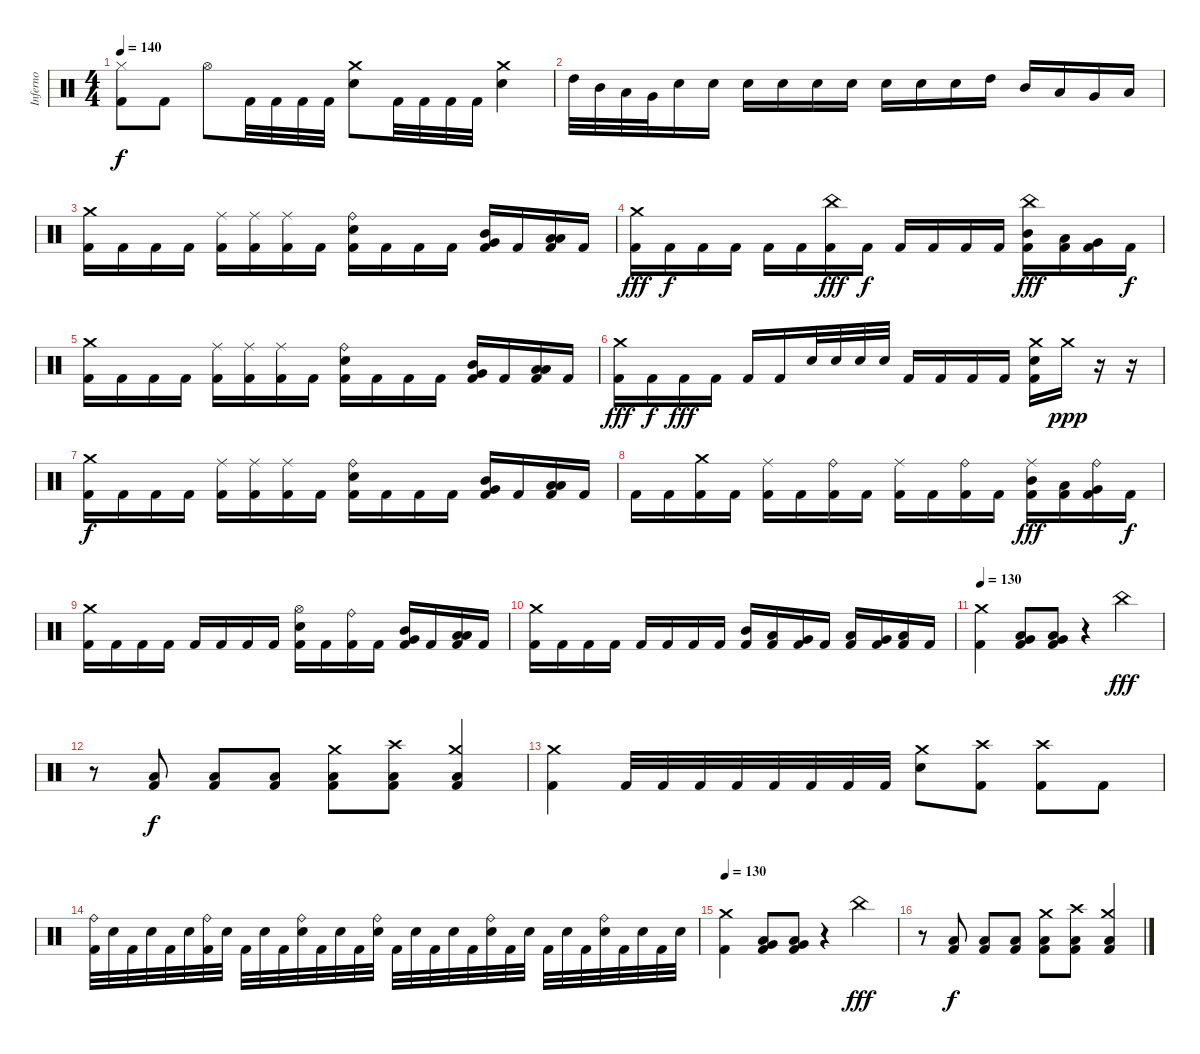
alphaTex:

\track ("Inferno" "Inferno") {instrument percussion}
\staff {score}
\articulation defaults
\ts (4 4)
\tempo 140
\clef neutral
\ks c
("Hi-Hat (closed)" "Kick (hit) 2").8{dy f} "Kick (hit) 2".8 "Hi-Hat (open)".8 "Kick (hit) 2".32 "Kick (hit) 2".32 "Kick (hit) 2".32 "Kick (hit) 2".32 ("Crash medium (hit)" "Snare (hit) 2").8 "Kick (hit) 2".32 "Kick (hit) 2".32 "Kick (hit) 2".32 "Kick (hit) 2".32 ("Crash medium (hit)" "Snare (hit) 2").4 |
"High Tom (hit)".32 "Mid Tom (hit)".32 "Low Tom (hit)".32 "Very Low Tom (hit)".32 "Snare (hit) 2".16 "Snare (hit) 2".16 "Snare (hit) 2".16 "Snare (hit) 2".16 "Snare (hit) 2".16 "Snare (hit) 2".16 "Snare (hit) 2".16 "Snare (hit) 2".16 "Snare (hit) 2".16 "High Tom (hit)".16 "Mid Tom (hit)".16 "Low Tom (hit)".16 "Very Low Tom (hit)".16 "Low Floor Tom (hit)".16 |
("Crash medium (hit)" "Kick (hit) 2").16 "Kick (hit) 2".16 "Kick (hit) 2".16 "Kick (hit) 2".16 ("Ride (middle)" "Kick (hit) 2").16 ("Ride (middle)" "Kick (hit) 2").16 ("Ride (middle)" "Kick (hit) 2").16 "Kick (hit) 2".16 ("Ride (bell)" "Snare (hit) 2" "Kick (hit) 2").16 "Kick (hit) 2".16 "Kick (hit) 2".16 "Kick (hit) 2".16 ("Mid Tom (hit)" "Very Low Tom (hit)" "Kick (hit) 2").16 "Kick (hit) 2".16 ("Low Tom (hit)" "Low Floor Tom (hit)" "Kick (hit) 2").16 "Kick (hit) 2".16 |
("Crash medium (hit)" "Kick (hit) 2").16{dy fff} "Kick (hit) 2".16{dy f} "Kick (hit) 2".16 "Kick (hit) 2".16 "Kick (hit) 2".16 "Kick (hit) 2".16 ("China (hit)" "Kick (hit) 2").16{dy fff} "Kick (hit) 2".16{dy f} "Kick (hit) 2".16 "Kick (hit) 2".16 "Kick (hit) 2".16 "Kick (hit) 2".16 ("China (hit)" "Mid Tom (hit)" "Kick (hit) 2").16{dy fff} ("Low Tom (hit)" "Kick (hit) 2").16 ("Very Low Tom (hit)" "Kick (hit) 2").16 "Kick (hit) 2".16{dy f} |
("Crash medium (hit)" "Kick (hit) 2").16 "Kick (hit) 2".16 "Kick (hit) 2".16 "Kick (hit) 2".16 ("Ride (middle)" "Kick (hit) 2").16 ("Ride (middle)" "Kick (hit) 2").16 ("Ride (middle)" "Kick (hit) 2").16 "Kick (hit) 2".16 ("Ride (bell)" "Snare (hit) 2" "Kick (hit) 2").16 "Kick (hit) 2".16 "Kick (hit) 2".16 "Kick (hit) 2".16 ("Mid Tom (hit)" "Very Low Tom (hit)" "Kick (hit) 2").16 "Kick (hit) 2".16 ("Low Tom (hit)" "Low Floor Tom (hit)" "Kick (hit) 2").16 "Kick (hit) 2".16 |
("Crash medium (hit)" "Kick (hit) 2").16{dy fff} "Kick (hit) 2".16{dy f} "Kick (hit) 2".16{dy fff} "Kick (hit) 2".16 "Kick (hit) 2".16 "Kick (hit) 2".16 "Snare (hit) 2".32 "Snare (hit) 2".32 "Snare (hit) 2".32 "Snare (hit) 2".32 "Kick (hit) 2".16 "Kick (hit) 2".16 "Kick (hit) 2".16 "Kick (hit) 2".16 ("Crash medium (hit)" "Snare (hit) 2" "Kick (hit) 2").16 "Crash medium (hit)".16{dy ppp} r.16 r.16 |
("Crash medium (hit)" "Kick (hit) 2").16{dy f} "Kick (hit) 2".16 "Kick (hit) 2".16 "Kick (hit) 2".16 ("Ride (middle)" "Kick (hit) 2").16 ("Ride (middle)" "Kick (hit) 2").16 ("Ride (middle)" "Kick (hit) 2").16 "Kick (hit) 2".16 ("Ride (bell)" "Snare (hit) 2" "Kick (hit) 2").16 "Kick (hit) 2".16 "Kick (hit) 2".16 "Kick (hit) 2".16 ("Mid Tom (hit)" "Very Low Tom (hit)" "Kick (hit) 2").16 "Kick (hit) 2".16 ("Low Tom (hit)" "Low Floor Tom (hit)" "Kick (hit) 2").16 "Kick (hit) 2".16 |
"Kick (hit) 2".16 "Kick (hit) 2".16 ("Crash medium (hit)" "Kick (hit) 2").16 "Kick (hit) 2".16 ("Ride (middle)" "Kick (hit) 2").16 "Kick (hit) 2".16 ("Ride (bell)" "Kick (hit) 2").16 "Kick (hit) 2".16 ("Ride (middle)" "Kick (hit) 2").16 "Kick (hit) 2".16 ("Ride (bell)" "Kick (hit) 2").16 "Kick (hit) 2".16 ("Ride (middle)" "Mid Tom (hit)" "Kick (hit) 2").16{dy fff} ("Low Tom (hit)" "Kick (hit) 2").16 ("Ride (bell)" "Very Low Tom (hit)" "Kick (hit) 2").16 "Kick (hit) 2".16{dy f} |
("Crash medium (hit)" "Kick (hit) 2").16 "Kick (hit) 2".16 "Kick (hit) 2".16 "Kick (hit) 2".16 "Kick (hit) 2".16 "Kick (hit) 2".16 "Kick (hit) 2".16 "Kick (hit) 2".16 ("Hi-Hat (open)" "Snare (hit) 2" "Kick (hit) 2").16 "Kick (hit) 2".16 ("Ride (bell)" "Kick (hit) 2").16 "Kick (hit) 2".16 ("Mid Tom (hit)" "Very Low Tom (hit)" "Kick (hit) 2").16 "Kick (hit) 2".16 ("Low Tom (hit)" "Low Floor Tom (hit)" "Kick (hit) 2").16 "Kick (hit) 2".16 |
("Crash medium (hit)" "Kick (hit) 2").16 "Kick (hit) 2".16 "Kick (hit) 2".16 "Kick (hit) 2".16 "Kick (hit) 2".16 "Kick (hit) 2".16 "Kick (hit) 2".16 "Kick (hit) 2".16 ("Mid Tom (hit)" "Kick (hit) 2").16 ("Low Tom (hit)" "Kick (hit) 2").16 ("Very Low Tom (hit)" "Kick (hit) 2").16 "Kick (hit) 2".16 ("Low Tom (hit)" "Kick (hit) 2").16 ("Very Low Tom (hit)" "Kick (hit) 2").16 ("Low Floor Tom (hit)" "Kick (hit) 2").16 "Kick (hit) 2".16 |
\tempo 130
("Crash medium (hit)" "Kick (hit) 2").4 ("Very Low Tom (hit)" "Low Floor Tom (hit)" "Kick (hit) 2").8 ("Very Low Tom (hit)" "Low Floor Tom (hit)" "Kick (hit) 2").8 r.4 "China (hit)".4{dy fff} |
r.8 ("Low Floor Tom (hit)" "Kick (hit) 2").8{dy f} ("Low Floor Tom (hit)" "Kick (hit) 2").8 ("Low Floor Tom (hit)" "Kick (hit) 2").8 ("Crash medium (hit)" "Low Floor Tom (hit)" "Kick (hit) 2").8 ("Crash high (hit)" "Low Floor Tom (hit)" "Kick (hit) 2").8 ("Crash medium (hit)" "Low Floor Tom (hit)" "Kick (hit) 2").4 |
("Crash medium (hit)" "Kick (hit) 2").4 "Kick (hit) 2".32 "Kick (hit) 2".32 "Kick (hit) 2".32 "Kick (hit) 2".32 "Kick (hit) 2".32 "Kick (hit) 2".32 "Kick (hit) 2".32 "Kick (hit) 2".32 ("Crash medium (hit)" "Snare (hit) 2").8 ("Crash high (hit)" "Kick (hit) 2").8 ("Crash high (hit)" "Kick (hit) 2").8 "Kick (hit) 2".8 |
("Ride (bell)" "Kick (hit) 2").32 "Snare (hit) 2".32 "Kick (hit) 2".32 "Snare (hit) 2".32 "Kick (hit) 2".32 "Snare (hit) 2".32 ("Ride (bell)" "Kick (hit) 2").32 "Snare (hit) 2".32 "Kick (hit) 2".32 "Snare (hit) 2".32 "Kick (hit) 2".32 ("Ride (bell)" "Snare (hit) 2").32 "Kick (hit) 2".32 "Snare (hit) 2".32 "Kick (hit) 2".32 ("Ride (bell)" "Snare (hit) 2").32 "Kick (hit) 2".32 "Snare (hit) 2".32 "Kick (hit) 2".32 "Snare (hit) 2".32 "Kick (hit) 2".32 ("Ride (bell)" "Snare (hit) 2").32 "Kick (hit) 2".32 "Snare (hit) 2".32 "Kick (hit) 2".32 "Snare (hit) 2".32 "Kick (hit) 2".32 ("Ride (bell)" "Snare (hit) 2").32 "Kick (hit) 2".32 "Snare (hit) 2".32 "Kick (hit) 2".32 "Snare (hit) 2".32 |
\tempo 130
("Crash medium (hit)" "Kick (hit) 2").4 ("Very Low Tom (hit)" "Low Floor Tom (hit)" "Kick (hit) 2").8 ("Very Low Tom (hit)" "Low Floor Tom (hit)" "Kick (hit) 2").8 r.4 "China (hit)".4{dy fff} |
r.8 ("Low Floor Tom (hit)" "Kick (hit) 2").8{dy f} ("Low Floor Tom (hit)" "Kick (hit) 2").8 ("Low Floor Tom (hit)" "Kick (hit) 2").8 ("Crash medium (hit)" "Low Floor Tom (hit)" "Kick (hit) 2").8 ("Crash high (hit)" "Low Floor Tom (hit)" "Kick (hit) 2").8 ("Crash medium (hit)" "Low Floor Tom (hit)" "Kick (hit) 2").4
